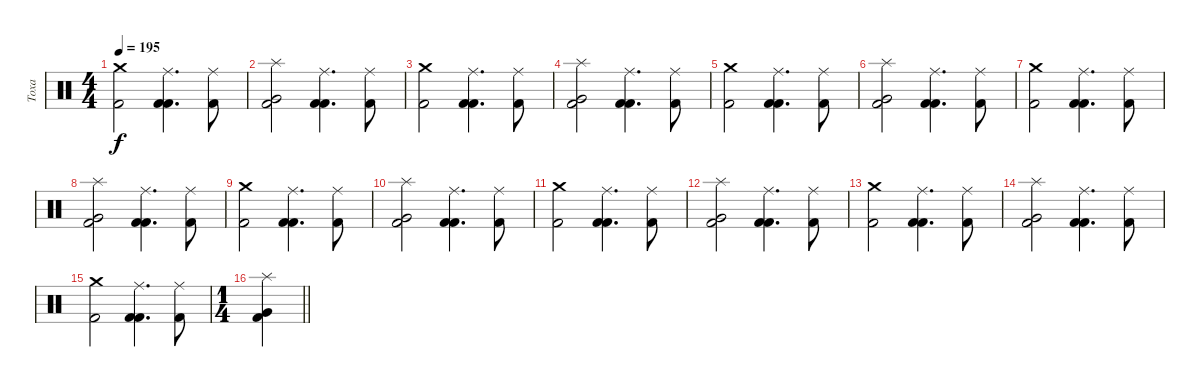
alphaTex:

\track ("Toxa" "Toxa") {instrument percussion}
\staff {score}
\articulation defaults
\ts (4 4)
\tempo 195
\clef neutral
\ks c
("Crash medium (hit)" "Kick (hit) 2").2{dy f} ("Kick (hit) 2" "Ride (middle)" "Kick (hit) 2").4{d} ("Ride (middle)" "Kick (hit) 2").8 |
("Kick (hit) 2" "Very Low Tom (hit)" "Splash (hit)").2 ("Kick (hit) 2" "Ride (middle)" "Kick (hit) 2").4{d} ("Ride (middle)" "Kick (hit) 2").8 |
("Crash medium (hit)" "Kick (hit) 2").2 ("Kick (hit) 2" "Ride (middle)" "Kick (hit) 2").4{d} ("Ride (middle)" "Kick (hit) 2").8 |
("Kick (hit) 2" "Very Low Tom (hit)" "Splash (hit)").2 ("Kick (hit) 2" "Ride (middle)" "Kick (hit) 2").4{d} ("Ride (middle)" "Kick (hit) 2").8 |
("Crash medium (hit)" "Kick (hit) 2").2 ("Kick (hit) 2" "Ride (middle)" "Kick (hit) 2").4{d} ("Ride (middle)" "Kick (hit) 2").8 |
("Kick (hit) 2" "Very Low Tom (hit)" "Splash (hit)").2 ("Kick (hit) 2" "Ride (middle)" "Kick (hit) 2").4{d} ("Ride (middle)" "Kick (hit) 2").8 |
("Crash medium (hit)" "Kick (hit) 2").2 ("Kick (hit) 2" "Ride (middle)" "Kick (hit) 2").4{d} ("Ride (middle)" "Kick (hit) 2").8 |
("Kick (hit) 2" "Very Low Tom (hit)" "Splash (hit)").2 ("Kick (hit) 2" "Ride (middle)" "Kick (hit) 2").4{d} ("Ride (middle)" "Kick (hit) 2").8 |
("Crash medium (hit)" "Kick (hit) 2").2 ("Kick (hit) 2" "Ride (middle)" "Kick (hit) 2").4{d} ("Ride (middle)" "Kick (hit) 2").8 |
("Kick (hit) 2" "Very Low Tom (hit)" "Splash (hit)").2 ("Kick (hit) 2" "Ride (middle)" "Kick (hit) 2").4{d} ("Ride (middle)" "Kick (hit) 2").8 |
("Crash medium (hit)" "Kick (hit) 2").2 ("Kick (hit) 2" "Ride (middle)" "Kick (hit) 2").4{d} ("Ride (middle)" "Kick (hit) 2").8 |
("Kick (hit) 2" "Very Low Tom (hit)" "Splash (hit)").2 ("Kick (hit) 2" "Ride (middle)" "Kick (hit) 2").4{d} ("Ride (middle)" "Kick (hit) 2").8 |
("Crash medium (hit)" "Kick (hit) 2").2 ("Kick (hit) 2" "Ride (middle)" "Kick (hit) 2").4{d} ("Ride (middle)" "Kick (hit) 2").8 |
("Kick (hit) 2" "Very Low Tom (hit)" "Splash (hit)").2 ("Kick (hit) 2" "Ride (middle)" "Kick (hit) 2").4{d} ("Ride (middle)" "Kick (hit) 2").8 |
("Crash medium (hit)" "Kick (hit) 2").2 ("Kick (hit) 2" "Ride (middle)" "Kick (hit) 2").4{d} ("Ride (middle)" "Kick (hit) 2").8 |
\ts (1 4)
\barLineRight lightlight
("Kick (hit) 2" "Very Low Tom (hit)" "Splash (hit)").4
